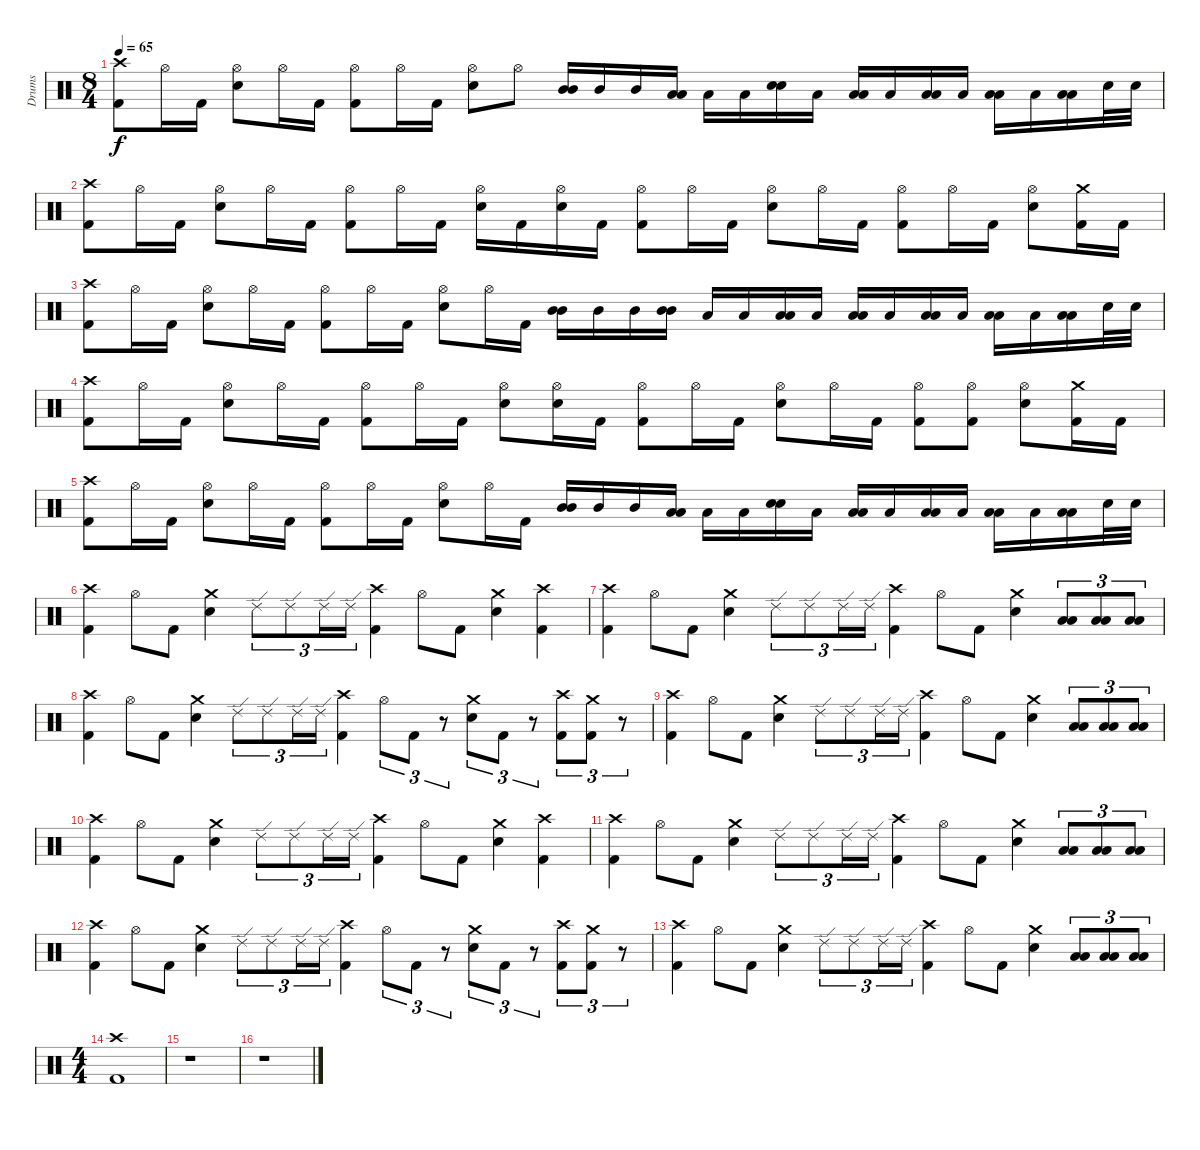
\track ("Drums" "Drums") {instrument percussion}
\staff {score}
\articulation defaults
\ts (8 4)
\tempo 65
\clef neutral
\ks c
("Crash high (hit)" "Kick (hit) 2").8{dy f} "Hi-Hat (open)".16 "Kick (hit) 2".16 ("Hi-Hat (open)" "Electric Snare (hit)").8 "Hi-Hat (open)".16 "Kick (hit) 2".16 ("Hi-Hat (open)" "Kick (hit) 2").8 "Hi-Hat (open)".16 "Kick (hit) 2".16 ("Hi-Hat (open)" "Electric Snare (hit)").8 "Hi-Hat (open)".8 ("Mid Tom (hit)" "Mid Tom (hit)").16{bu 120} "Mid Tom (hit)".16 "Mid Tom (hit)".16 ("Low Tom (hit)" "Low Tom (hit)").16{bu 120} "Low Tom (hit)".16 "Low Tom (hit)".16 ("Electric Snare (hit)" "Electric Snare (hit)").16{bu 120} "Low Tom (hit)".16 ("Low Tom (hit)" "Low Tom (hit)").16{bu 120} "Low Tom (hit)".16 ("Low Tom (hit)" "Low Tom (hit)").16{bu 120} "Low Tom (hit)".16 ("Low Tom (hit)" "Low Tom (hit)").16{bu 120} "Low Tom (hit)".16 ("Low Tom (hit)" "Low Tom (hit)").16{bu 120} "Electric Snare (hit)".32 "Electric Snare (hit)".32 |
("Crash high (hit)" "Kick (hit) 2").8 "Hi-Hat (open)".16 "Kick (hit) 2".16 ("Hi-Hat (open)" "Electric Snare (hit)").8 "Hi-Hat (open)".16 "Kick (hit) 2".16 ("Hi-Hat (open)" "Kick (hit) 2").8 "Hi-Hat (open)".16 "Kick (hit) 2".16 ("Hi-Hat (open)" "Electric Snare (hit)").16 "Kick (hit) 2".16 ("Hi-Hat (open)" "Electric Snare (hit)").16 "Kick (hit) 2".16 ("Hi-Hat (open)" "Kick (hit) 2").8 "Hi-Hat (open)".16 "Kick (hit) 2".16 ("Hi-Hat (open)" "Electric Snare (hit)").8 "Hi-Hat (open)".16 "Kick (hit) 2".16 ("Hi-Hat (open)" "Kick (hit) 2").8 "Hi-Hat (open)".16 "Kick (hit) 2".16 ("Hi-Hat (open)" "Electric Snare (hit)").8 ("Crash medium (hit)" "Kick (hit) 2").16 "Kick (hit) 2".16 |
("Crash high (hit)" "Kick (hit) 2").8 "Hi-Hat (open)".16 "Kick (hit) 2".16 ("Hi-Hat (open)" "Electric Snare (hit)").8 "Hi-Hat (open)".16 "Kick (hit) 2".16 ("Hi-Hat (open)" "Kick (hit) 2").8 "Hi-Hat (open)".16 "Kick (hit) 2".16 ("Hi-Hat (open)" "Electric Snare (hit)").8 "Hi-Hat (open)".16 "Kick (hit) 2".16 ("Mid Tom (hit)" "Mid Tom (hit)").16{bu 120} "Mid Tom (hit)".16 "Mid Tom (hit)".16 ("Mid Tom (hit)" "Mid Tom (hit)").16{bu 120} "Low Tom (hit)".16 "Low Tom (hit)".16 ("Low Tom (hit)" "Low Tom (hit)").16{bu 120} "Low Tom (hit)".16 ("Low Tom (hit)" "Low Tom (hit)").16{bu 120} "Low Tom (hit)".16 ("Low Tom (hit)" "Low Tom (hit)").16{bu 120} "Low Tom (hit)".16 ("Low Tom (hit)" "Low Tom (hit)").16{bu 120} "Low Tom (hit)".16 ("Low Tom (hit)" "Low Tom (hit)").16{bu 120} "Electric Snare (hit)".32 "Electric Snare (hit)".32 |
("Crash high (hit)" "Kick (hit) 2").8 "Hi-Hat (open)".16 "Kick (hit) 2".16 ("Hi-Hat (open)" "Electric Snare (hit)").8 "Hi-Hat (open)".16 "Kick (hit) 2".16 ("Hi-Hat (open)" "Kick (hit) 2").8 "Hi-Hat (open)".16 "Kick (hit) 2".16 ("Hi-Hat (open)" "Electric Snare (hit)").8 ("Hi-Hat (open)" "Electric Snare (hit)").16 "Kick (hit) 2".16 ("Hi-Hat (open)" "Kick (hit) 2").8 "Hi-Hat (open)".16 "Kick (hit) 2".16 ("Hi-Hat (open)" "Electric Snare (hit)").8 "Hi-Hat (open)".16 "Kick (hit) 2".16 ("Hi-Hat (open)" "Kick (hit) 2").8 ("Hi-Hat (open)" "Kick (hit) 2").8 ("Hi-Hat (open)" "Electric Snare (hit)").8 ("Crash medium (hit)" "Kick (hit) 2").16 "Kick (hit) 2".16 |
("Crash high (hit)" "Kick (hit) 2").8 "Hi-Hat (open)".16 "Kick (hit) 2".16 ("Hi-Hat (open)" "Electric Snare (hit)").8 "Hi-Hat (open)".16 "Kick (hit) 2".16 ("Hi-Hat (open)" "Kick (hit) 2").8 "Hi-Hat (open)".16 "Kick (hit) 2".16 ("Hi-Hat (open)" "Electric Snare (hit)").8 "Hi-Hat (open)".16 "Kick (hit) 2".16 ("Mid Tom (hit)" "Mid Tom (hit)").16{bu 120} "Mid Tom (hit)".16 "Mid Tom (hit)".16 ("Low Tom (hit)" "Low Tom (hit)").16{bu 120} "Low Tom (hit)".16 "Low Tom (hit)".16 ("Electric Snare (hit)" "Electric Snare (hit)").16{bu 120} "Low Tom (hit)".16 ("Low Tom (hit)" "Low Tom (hit)").16{bu 120} "Low Tom (hit)".16 ("Low Tom (hit)" "Low Tom (hit)").16{bu 120} "Low Tom (hit)".16 ("Low Tom (hit)" "Low Tom (hit)").16{bu 120} "Low Tom (hit)".16 ("Low Tom (hit)" "Low Tom (hit)").16{bu 120} "Electric Snare (hit)".32 "Electric Snare (hit)".32 |
("Crash high (hit)" "Kick (hit) 2").4 "Hi-Hat (open)".8 "Kick (hit) 2".8 ("Crash medium (hit)" "Electric Snare (hit)").4 "Ride (edge) 2".8{tu (3 2)} "Ride (edge) 2".8{tu (3 2)} "Ride (edge) 2".16{tu (3 2)} "Ride (edge) 2".16{tu (3 2)} ("Crash high (hit)" "Kick (hit) 2").4 "Hi-Hat (open)".8 "Kick (hit) 2".8 ("Crash medium (hit)" "Electric Snare (hit)").4 ("Crash high (hit)" "Kick (hit) 2").4 |
("Crash high (hit)" "Kick (hit) 2").4 "Hi-Hat (open)".8 "Kick (hit) 2".8 ("Crash medium (hit)" "Electric Snare (hit)").4 "Ride (edge) 2".8{tu (3 2)} "Ride (edge) 2".8{tu (3 2)} "Ride (edge) 2".16{tu (3 2)} "Ride (edge) 2".16{tu (3 2)} ("Crash high (hit)" "Kick (hit) 2").4 "Hi-Hat (open)".8 "Kick (hit) 2".8 ("Crash medium (hit)" "Electric Snare (hit)").4 ("Low Tom (hit)" "Low Tom (hit)").8{tu (3 2) bu 120} ("Low Tom (hit)" "Low Tom (hit)").8{tu (3 2) bu 120} ("Low Tom (hit)" "Low Tom (hit)").8{tu (3 2) bu 120} |
("Crash high (hit)" "Kick (hit) 2").4 "Hi-Hat (open)".8 "Kick (hit) 2".8 ("Crash medium (hit)" "Electric Snare (hit)").4 "Ride (edge) 2".8{tu (3 2)} "Ride (edge) 2".8{tu (3 2)} "Ride (edge) 2".16{tu (3 2)} "Ride (edge) 2".16{tu (3 2)} ("Crash high (hit)" "Kick (hit) 2").4 "Hi-Hat (open)".8{tu (3 2)} "Kick (hit) 2".8{tu (3 2)} r.8{tu (3 2)} ("Crash medium (hit)" "Electric Snare (hit)").8{tu (3 2)} "Kick (hit) 2".8{tu (3 2)} r.8{tu (3 2)} ("Crash high (hit)" "Kick (hit) 2").8{tu (3 2)} ("Crash medium (hit)" "Kick (hit) 2").8{tu (3 2)} r.8{tu (3 2)} |
("Crash high (hit)" "Kick (hit) 2").4 "Hi-Hat (open)".8 "Kick (hit) 2".8 ("Crash medium (hit)" "Electric Snare (hit)").4 "Ride (edge) 2".8{tu (3 2)} "Ride (edge) 2".8{tu (3 2)} "Ride (edge) 2".16{tu (3 2)} "Ride (edge) 2".16{tu (3 2)} ("Crash high (hit)" "Kick (hit) 2").4 "Hi-Hat (open)".8 "Kick (hit) 2".8 ("Crash medium (hit)" "Electric Snare (hit)").4 ("Low Tom (hit)" "Low Tom (hit)").8{tu (3 2) bu 120} ("Low Tom (hit)" "Low Tom (hit)").8{tu (3 2) bu 120} ("Low Tom (hit)" "Low Tom (hit)").8{tu (3 2) bu 120} |
("Crash high (hit)" "Kick (hit) 2").4 "Hi-Hat (open)".8 "Kick (hit) 2".8 ("Crash medium (hit)" "Electric Snare (hit)").4 "Ride (edge) 2".8{tu (3 2)} "Ride (edge) 2".8{tu (3 2)} "Ride (edge) 2".16{tu (3 2)} "Ride (edge) 2".16{tu (3 2)} ("Crash high (hit)" "Kick (hit) 2").4 "Hi-Hat (open)".8 "Kick (hit) 2".8 ("Crash medium (hit)" "Electric Snare (hit)").4 ("Crash high (hit)" "Kick (hit) 2").4 |
("Crash high (hit)" "Kick (hit) 2").4 "Hi-Hat (open)".8 "Kick (hit) 2".8 ("Crash medium (hit)" "Electric Snare (hit)").4 "Ride (edge) 2".8{tu (3 2)} "Ride (edge) 2".8{tu (3 2)} "Ride (edge) 2".16{tu (3 2)} "Ride (edge) 2".16{tu (3 2)} ("Crash high (hit)" "Kick (hit) 2").4 "Hi-Hat (open)".8 "Kick (hit) 2".8 ("Crash medium (hit)" "Electric Snare (hit)").4 ("Low Tom (hit)" "Low Tom (hit)").8{tu (3 2) bu 120} ("Low Tom (hit)" "Low Tom (hit)").8{tu (3 2) bu 120} ("Low Tom (hit)" "Low Tom (hit)").8{tu (3 2) bu 120} |
("Crash high (hit)" "Kick (hit) 2").4 "Hi-Hat (open)".8 "Kick (hit) 2".8 ("Crash medium (hit)" "Electric Snare (hit)").4 "Ride (edge) 2".8{tu (3 2)} "Ride (edge) 2".8{tu (3 2)} "Ride (edge) 2".16{tu (3 2)} "Ride (edge) 2".16{tu (3 2)} ("Crash high (hit)" "Kick (hit) 2").4 "Hi-Hat (open)".8{tu (3 2)} "Kick (hit) 2".8{tu (3 2)} r.8{tu (3 2)} ("Crash medium (hit)" "Electric Snare (hit)").8{tu (3 2)} "Kick (hit) 2".8{tu (3 2)} r.8{tu (3 2)} ("Crash high (hit)" "Kick (hit) 2").8{tu (3 2)} ("Crash medium (hit)" "Kick (hit) 2").8{tu (3 2)} r.8{tu (3 2)} |
("Crash high (hit)" "Kick (hit) 2").4 "Hi-Hat (open)".8 "Kick (hit) 2".8 ("Crash medium (hit)" "Electric Snare (hit)").4 "Ride (edge) 2".8{tu (3 2)} "Ride (edge) 2".8{tu (3 2)} "Ride (edge) 2".16{tu (3 2)} "Ride (edge) 2".16{tu (3 2)} ("Crash high (hit)" "Kick (hit) 2").4 "Hi-Hat (open)".8 "Kick (hit) 2".8 ("Crash medium (hit)" "Electric Snare (hit)").4 ("Low Tom (hit)" "Low Tom (hit)").8{tu (3 2) bu 120} ("Low Tom (hit)" "Low Tom (hit)").8{tu (3 2) bu 120} ("Low Tom (hit)" "Low Tom (hit)").8{tu (3 2) bu 120} |
\ts (4 4)
("Crash high (hit)" "Kick (hit) 2").1 |
r.1 |
r.1
